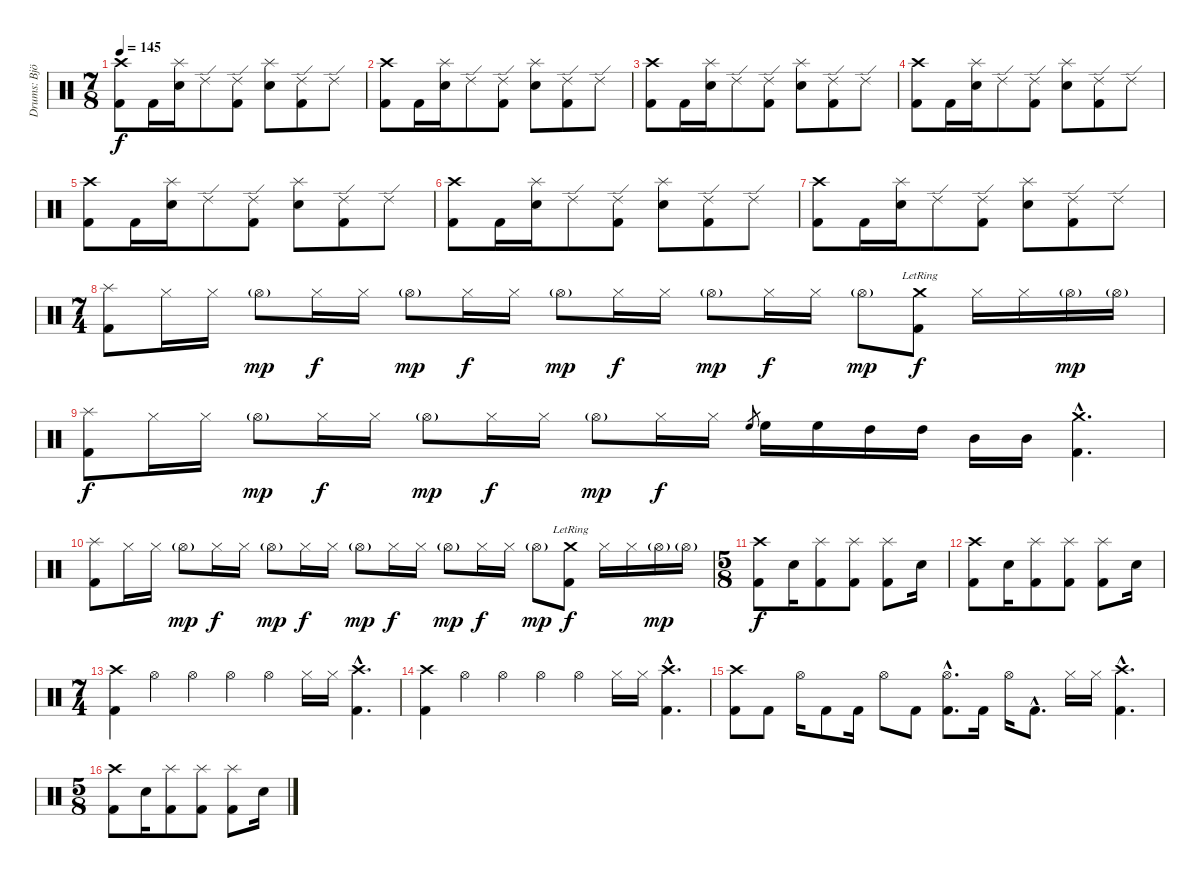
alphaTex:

\track ("Drums: Björn Fryklund" "Drums: Bjö") {instrument percussion}
\staff {score}
\articulation defaults
\ts (7 8)
\tempo 145
\clef neutral
\ks c
("Crash high (hit)" "Kick (hit) 2").8{dy f} "Kick (hit) 2".16 ("Splash (hit)" "Snare (hit) 2").16 "Ride (edge) 2".8 ("Ride (edge) 2" "Kick (hit) 2").8 ("Splash (hit)" "Snare (hit) 2").8 ("Ride (edge) 2" "Kick (hit) 2").8 "Ride (edge) 2".8 |
("Crash high (hit)" "Kick (hit) 2").8 "Kick (hit) 2".16 ("Splash (hit)" "Snare (hit) 2").16 "Ride (edge) 2".8 ("Ride (edge) 2" "Kick (hit) 2").8 ("Splash (hit)" "Snare (hit) 2").8 ("Ride (edge) 2" "Kick (hit) 2").8 "Ride (edge) 2".8 |
("Crash high (hit)" "Kick (hit) 2").8 "Kick (hit) 2".16 ("Splash (hit)" "Snare (hit) 2").16 "Ride (edge) 2".8 ("Ride (edge) 2" "Kick (hit) 2").8 ("Splash (hit)" "Snare (hit) 2").8 ("Ride (edge) 2" "Kick (hit) 2").8 "Ride (edge) 2".8 |
("Crash high (hit)" "Kick (hit) 2").8 "Kick (hit) 2".16 ("Splash (hit)" "Snare (hit) 2").16 "Ride (edge) 2".8 ("Ride (edge) 2" "Kick (hit) 2").8 ("Splash (hit)" "Snare (hit) 2").8 ("Ride (edge) 2" "Kick (hit) 2").8 "Ride (edge) 2".8 |
("Crash high (hit)" "Kick (hit) 2").8 "Kick (hit) 2".16 ("Splash (hit)" "Snare (hit) 2").16 "Ride (edge) 2".8 ("Ride (edge) 2" "Kick (hit) 2").8 ("Splash (hit)" "Snare (hit) 2").8 ("Ride (edge) 2" "Kick (hit) 2").8 "Ride (edge) 2".8 |
("Crash high (hit)" "Kick (hit) 2").8 "Kick (hit) 2".16 ("Splash (hit)" "Snare (hit) 2").16 "Ride (edge) 2".8 ("Ride (edge) 2" "Kick (hit) 2").8 ("Splash (hit)" "Snare (hit) 2").8 ("Ride (edge) 2" "Kick (hit) 2").8 "Ride (edge) 2".8 |
("Crash high (hit)" "Kick (hit) 2").8 "Kick (hit) 2".16 ("Splash (hit)" "Snare (hit) 2").16 "Ride (edge) 2".8 ("Ride (edge) 2" "Kick (hit) 2").8 ("Splash (hit)" "Snare (hit) 2").8 ("Ride (edge) 2" "Kick (hit) 2").8 "Ride (edge) 2".8 |
\ts (7 4)
("Splash (hit)" "Kick (hit) 2").8 "Hi-Hat (closed)".16 "Hi-Hat (closed)".16 "Hi-Hat (open)"{g}.8{dy mp} "Hi-Hat (closed)".16{dy f} "Hi-Hat (closed)".16 "Hi-Hat (open)"{g}.8{dy mp} "Hi-Hat (closed)".16{dy f} "Hi-Hat (closed)".16 "Hi-Hat (open)"{g}.8{dy mp} "Hi-Hat (closed)".16{dy f} "Hi-Hat (closed)".16 "Hi-Hat (open)"{g}.8{dy mp} "Hi-Hat (closed)".16{dy f} "Hi-Hat (closed)".16 "Hi-Hat (open)"{g}.8{dy mp} ("Crash medium (hit)"{lr} "Kick (hit) 2").8{dy f} "Hi-Hat (closed)".16 "Hi-Hat (closed)".16 "Hi-Hat (open)"{g}.16{dy mp} "Hi-Hat (open)"{g}.16 |
("Splash (hit)" "Kick (hit) 2").8{dy f} "Hi-Hat (closed)".16 "Hi-Hat (closed)".16 "Hi-Hat (open)"{g}.8{dy mp} "Hi-Hat (closed)".16{dy f} "Hi-Hat (closed)".16 "Hi-Hat (open)"{g}.8{dy mp} "Hi-Hat (closed)".16{dy f} "Hi-Hat (closed)".16 "Hi-Hat (open)"{g}.8{dy mp} "Hi-Hat (closed)".16{dy f} "Hi-Hat (closed)".16 "High Floor Tom (hit)".8{gr} "High Floor Tom (hit)".16 "High Floor Tom (hit)".16 "High Tom (hit)".16 "High Tom (hit)".16 "Mid Tom (hit)".16 "Mid Tom (hit)".16 ("Crash medium (hit)"{hac} "Kick (hit) 2"{hac}).4{d} |
("Splash (hit)" "Kick (hit) 2").8 "Hi-Hat (closed)".16 "Hi-Hat (closed)".16 "Hi-Hat (open)"{g}.8{dy mp} "Hi-Hat (closed)".16{dy f} "Hi-Hat (closed)".16 "Hi-Hat (open)"{g}.8{dy mp} "Hi-Hat (closed)".16{dy f} "Hi-Hat (closed)".16 "Hi-Hat (open)"{g}.8{dy mp} "Hi-Hat (closed)".16{dy f} "Hi-Hat (closed)".16 "Hi-Hat (open)"{g}.8{dy mp} "Hi-Hat (closed)".16{dy f} "Hi-Hat (closed)".16 "Hi-Hat (open)"{g}.8{dy mp} ("Crash medium (hit)"{lr} "Kick (hit) 2").8{dy f} "Hi-Hat (closed)".16 "Hi-Hat (closed)".16 "Hi-Hat (open)"{g}.16{dy mp} "Hi-Hat (open)"{g}.16 |
\ts (5 8)
("Crash high (hit)" "Kick (hit) 2").8{dy f} "Snare (hit) 2".16 ("Splash (hit)" "Kick (hit) 2").8 ("Splash (hit)" "Kick (hit) 2").8 ("Splash (hit)" "Kick (hit) 2").8 "Snare (hit) 2".16 |
("Crash high (hit)" "Kick (hit) 2").8 "Snare (hit) 2".16 ("Splash (hit)" "Kick (hit) 2").8 ("Splash (hit)" "Kick (hit) 2").8 ("Splash (hit)" "Kick (hit) 2").8 "Snare (hit) 2".16 |
\ts (7 4)
("Crash high (hit)" "Kick (hit) 2").4 "Hi-Hat (open)".4 "Hi-Hat (open)".4 "Hi-Hat (open)".4 "Hi-Hat (open)".4 "Hi-Hat (closed)".16 "Hi-Hat (closed)".16 ("Crash high (hit)"{hac} "Kick (hit) 2"{hac}).4{d} |
("Crash high (hit)" "Kick (hit) 2").4 "Hi-Hat (open)".4 "Hi-Hat (open)".4 "Hi-Hat (open)".4 "Hi-Hat (open)".4 "Hi-Hat (closed)".16 "Hi-Hat (closed)".16 ("Crash high (hit)"{hac} "Kick (hit) 2"{hac}).4{d} |
("Crash high (hit)" "Kick (hit) 2").8 "Kick (hit) 2".8 "Hi-Hat (open)".16 "Kick (hit) 2".8 "Kick (hit) 2".16 "Hi-Hat (open)".8 "Kick (hit) 2".8 ("Hi-Hat (open)"{hac} "Kick (hit) 2"{hac}).8{d} "Kick (hit) 2".16 "Hi-Hat (open)".16 "Kick (hit) 2"{hac}.8{d} "Hi-Hat (closed)".16 "Hi-Hat (closed)".16 ("Crash high (hit)"{hac} "Kick (hit) 2"{hac}).4{d} |
\ts (5 8)
("Crash high (hit)" "Kick (hit) 2").8 "Snare (hit) 2".16 ("Splash (hit)" "Kick (hit) 2").8 ("Splash (hit)" "Kick (hit) 2").8 ("Splash (hit)" "Kick (hit) 2").8 "Snare (hit) 2".16
